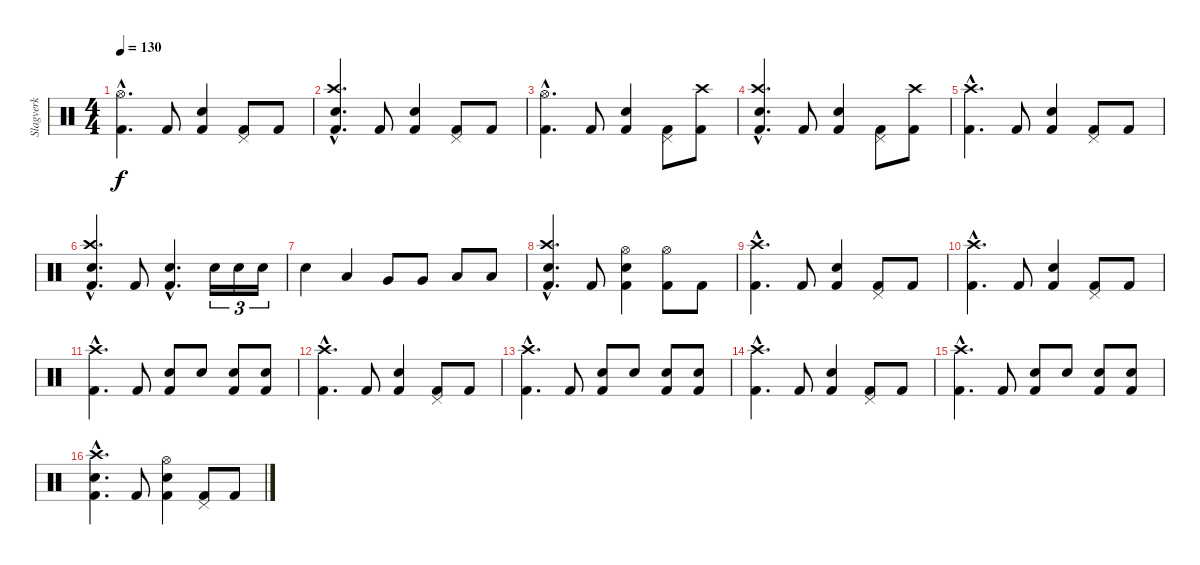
\track ("Slagverk" "Slagverk") {instrument percussion}
\staff {score}
\articulation defaults
\ts (4 4)
\tempo 130
\clef neutral
\ks c
("Hi-Hat (open)"{hac} "Kick (hit) 2"{hac}).4{d dy f} "Kick (hit) 2".8 ("Electric Snare (hit)" "Kick (hit) 2").4 ("Pedal Hi-Hat (hit)" "Kick (hit) 2").8 "Kick (hit) 2".8 |
("Crash high (hit)"{hac} "Snare (hit) 2"{hac} "Kick (hit) 2"{hac}).4{d} "Kick (hit) 2".8 ("Electric Snare (hit)" "Kick (hit) 2").4 ("Pedal Hi-Hat (hit)" "Kick (hit) 2").8 "Kick (hit) 2".8 |
("Hi-Hat (open)"{hac} "Kick (hit) 2"{hac}).4{d} "Kick (hit) 2".8 ("Electric Snare (hit)" "Kick (hit) 2").4 ("Pedal Hi-Hat (hit)" "Kick (hit) 2").8 ("Crash high (hit)" "Kick (hit) 2").8 |
("Crash high (hit)"{hac} "Snare (hit) 2"{hac} "Kick (hit) 2"{hac}).4{d} "Kick (hit) 2".8 ("Electric Snare (hit)" "Kick (hit) 2").4 ("Pedal Hi-Hat (hit)" "Kick (hit) 2").8 ("Crash high (hit)" "Kick (hit) 2").8 |
("Crash high (hit)"{hac} "Kick (hit) 2"{hac}).4{d} "Kick (hit) 2".8 ("Electric Snare (hit)" "Kick (hit) 2").4 ("Pedal Hi-Hat (hit)" "Kick (hit) 2").8 "Kick (hit) 2".8 |
("Crash high (hit)"{hac} "Snare (hit) 2"{hac} "Kick (hit) 2"{hac}).4{d} "Kick (hit) 2".8 ("Electric Snare (hit)"{hac} "Kick (hit) 2"{hac}).4{d} "Electric Snare (hit)".16{tu (3 2)} "Electric Snare (hit)".16{tu (3 2)} "Electric Snare (hit)".16{tu (3 2)} |
"Electric Snare (hit)".4 "Low Tom (hit)".4 "Very Low Tom (hit)".8 "Very Low Tom (hit)".8 "Low Floor Tom (hit)".8 "Low Floor Tom (hit)".8 |
("Crash high (hit)"{hac} "Snare (hit) 2"{hac} "Kick (hit) 2"{hac}).4{d} "Kick (hit) 2".8 ("Hi-Hat (open)" "Electric Snare (hit)" "Kick (hit) 2").4 ("Hi-Hat (open)" "Kick (hit) 2").8 "Kick (hit) 2".8 |
("Crash high (hit)"{hac} "Kick (hit) 2"{hac}).4{d} "Kick (hit) 2".8 ("Electric Snare (hit)" "Kick (hit) 2").4 ("Pedal Hi-Hat (hit)" "Kick (hit) 2").8 "Kick (hit) 2".8 |
("Crash high (hit)"{hac} "Kick (hit) 2"{hac}).4{d} "Kick (hit) 2".8 ("Electric Snare (hit)" "Kick (hit) 2").4 ("Pedal Hi-Hat (hit)" "Kick (hit) 2").8 "Kick (hit) 2".8 |
("Crash high (hit)"{hac} "Kick (hit) 2"{hac}).4{d} "Kick (hit) 2".8 ("Electric Snare (hit)" "Kick (hit) 2").8 "Electric Snare (hit)".8 ("Snare (hit) 2" "Kick (hit) 2").8 ("Electric Snare (hit)" "Kick (hit) 2").8 |
("Crash high (hit)"{hac} "Kick (hit) 2"{hac}).4{d} "Kick (hit) 2".8 ("Electric Snare (hit)" "Kick (hit) 2").4 ("Pedal Hi-Hat (hit)" "Kick (hit) 2").8 "Kick (hit) 2".8 |
("Crash high (hit)"{hac} "Kick (hit) 2"{hac}).4{d} "Kick (hit) 2".8 ("Electric Snare (hit)" "Kick (hit) 2").8 "Electric Snare (hit)".8 ("Snare (hit) 2" "Kick (hit) 2").8 ("Electric Snare (hit)" "Kick (hit) 2").8 |
("Crash high (hit)"{hac} "Kick (hit) 2"{hac}).4{d} "Kick (hit) 2".8 ("Electric Snare (hit)" "Kick (hit) 2").4 ("Pedal Hi-Hat (hit)" "Kick (hit) 2").8 "Kick (hit) 2".8 |
("Crash high (hit)"{hac} "Kick (hit) 2"{hac}).4{d} "Kick (hit) 2".8 ("Electric Snare (hit)" "Kick (hit) 2").8 "Electric Snare (hit)".8 ("Snare (hit) 2" "Kick (hit) 2").8 ("Electric Snare (hit)" "Kick (hit) 2").8 |
("Crash high (hit)"{hac} "Electric Snare (hit)"{hac} "Kick (hit) 2"{hac}).4{d} "Kick (hit) 2".8 ("Hi-Hat (open)" "Electric Snare (hit)" "Kick (hit) 2").4 ("Pedal Hi-Hat (hit)" "Kick (hit) 2").8 "Kick (hit) 2".8
